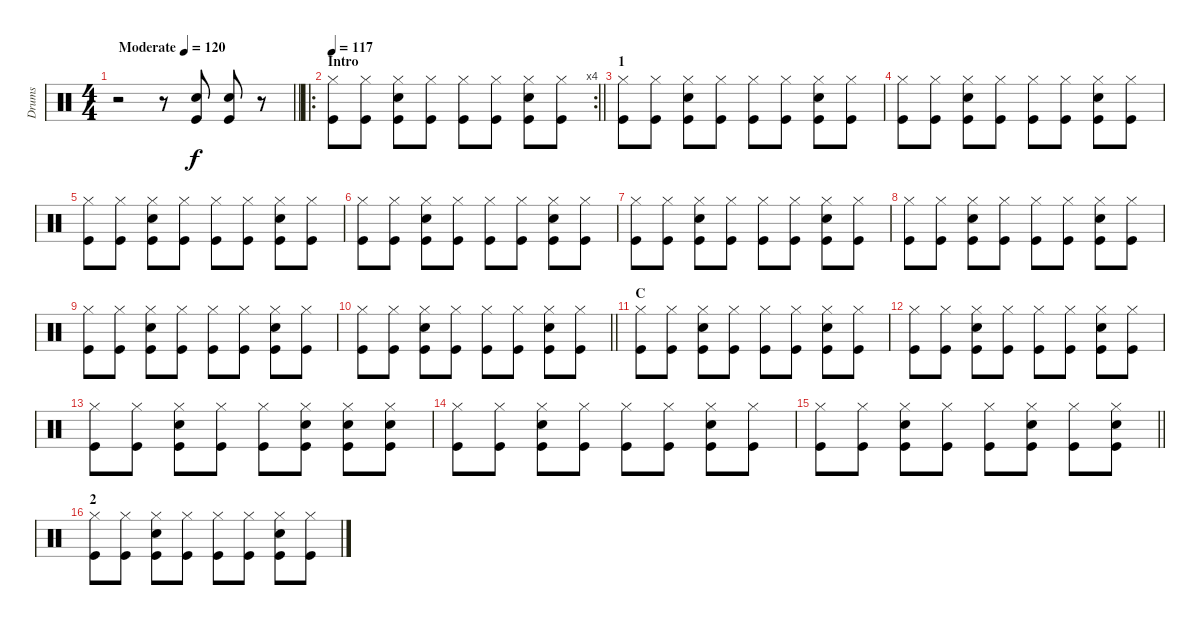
\track ("Drums" "Drums") {instrument percussion}
\staff {score}
\articulation defaults
\ts (4 4)
\tempo (120 "Moderate")
\clef neutral
\barLineRight lightlight
\ks c
r.2{dy f} r.8 ("Electric Snare (hit)" "Kick (hit)").8 ("Electric Snare (hit)" "Kick (hit)").8 r.8 |
\ro
\rc 4
\section ("" "Intro")
\tempo 117
\barLineRight lightlight
("Hi-Hat (closed)" "Kick (hit)").8 ("Hi-Hat (closed)" "Kick (hit)").8 ("Hi-Hat (closed)" "Electric Snare (hit)" "Kick (hit)").8 ("Hi-Hat (closed)" "Kick (hit)").8 ("Hi-Hat (closed)" "Kick (hit)").8 ("Hi-Hat (closed)" "Kick (hit)").8 ("Hi-Hat (closed)" "Electric Snare (hit)" "Kick (hit)").8 ("Hi-Hat (closed)" "Kick (hit)").8 |
\section ("" "1")
("Hi-Hat (closed)" "Kick (hit)").8 ("Hi-Hat (closed)" "Kick (hit)").8 ("Hi-Hat (closed)" "Electric Snare (hit)" "Kick (hit)").8 ("Hi-Hat (closed)" "Kick (hit)").8 ("Hi-Hat (closed)" "Kick (hit)").8 ("Hi-Hat (closed)" "Kick (hit)").8 ("Hi-Hat (closed)" "Electric Snare (hit)" "Kick (hit)").8 ("Hi-Hat (closed)" "Kick (hit)").8 |
("Hi-Hat (closed)" "Kick (hit)").8 ("Hi-Hat (closed)" "Kick (hit)").8 ("Hi-Hat (closed)" "Electric Snare (hit)" "Kick (hit)").8 ("Hi-Hat (closed)" "Kick (hit)").8 ("Hi-Hat (closed)" "Kick (hit)").8 ("Hi-Hat (closed)" "Kick (hit)").8 ("Hi-Hat (closed)" "Electric Snare (hit)" "Kick (hit)").8 ("Hi-Hat (closed)" "Kick (hit)").8 |
("Hi-Hat (closed)" "Kick (hit)").8 ("Hi-Hat (closed)" "Kick (hit)").8 ("Hi-Hat (closed)" "Electric Snare (hit)" "Kick (hit)").8 ("Hi-Hat (closed)" "Kick (hit)").8 ("Hi-Hat (closed)" "Kick (hit)").8 ("Hi-Hat (closed)" "Kick (hit)").8 ("Hi-Hat (closed)" "Electric Snare (hit)" "Kick (hit)").8 ("Hi-Hat (closed)" "Kick (hit)").8 |
("Hi-Hat (closed)" "Kick (hit)").8 ("Hi-Hat (closed)" "Kick (hit)").8 ("Hi-Hat (closed)" "Electric Snare (hit)" "Kick (hit)").8 ("Hi-Hat (closed)" "Kick (hit)").8 ("Hi-Hat (closed)" "Kick (hit)").8 ("Hi-Hat (closed)" "Kick (hit)").8 ("Hi-Hat (closed)" "Electric Snare (hit)" "Kick (hit)").8 ("Hi-Hat (closed)" "Kick (hit)").8 |
("Hi-Hat (closed)" "Kick (hit)").8 ("Hi-Hat (closed)" "Kick (hit)").8 ("Hi-Hat (closed)" "Electric Snare (hit)" "Kick (hit)").8 ("Hi-Hat (closed)" "Kick (hit)").8 ("Hi-Hat (closed)" "Kick (hit)").8 ("Hi-Hat (closed)" "Kick (hit)").8 ("Hi-Hat (closed)" "Electric Snare (hit)" "Kick (hit)").8 ("Hi-Hat (closed)" "Kick (hit)").8 |
("Hi-Hat (closed)" "Kick (hit)").8 ("Hi-Hat (closed)" "Kick (hit)").8 ("Hi-Hat (closed)" "Electric Snare (hit)" "Kick (hit)").8 ("Hi-Hat (closed)" "Kick (hit)").8 ("Hi-Hat (closed)" "Kick (hit)").8 ("Hi-Hat (closed)" "Kick (hit)").8 ("Hi-Hat (closed)" "Electric Snare (hit)" "Kick (hit)").8 ("Hi-Hat (closed)" "Kick (hit)").8 |
("Hi-Hat (closed)" "Kick (hit)").8 ("Hi-Hat (closed)" "Kick (hit)").8 ("Hi-Hat (closed)" "Electric Snare (hit)" "Kick (hit)").8 ("Hi-Hat (closed)" "Kick (hit)").8 ("Hi-Hat (closed)" "Kick (hit)").8 ("Hi-Hat (closed)" "Kick (hit)").8 ("Hi-Hat (closed)" "Electric Snare (hit)" "Kick (hit)").8 ("Hi-Hat (closed)" "Kick (hit)").8 |
\barLineRight lightlight
("Hi-Hat (closed)" "Kick (hit)").8 ("Hi-Hat (closed)" "Kick (hit)").8 ("Hi-Hat (closed)" "Electric Snare (hit)" "Kick (hit)").8 ("Hi-Hat (closed)" "Kick (hit)").8 ("Hi-Hat (closed)" "Kick (hit)").8 ("Hi-Hat (closed)" "Kick (hit)").8 ("Hi-Hat (closed)" "Electric Snare (hit)" "Kick (hit)").8 ("Hi-Hat (closed)" "Kick (hit)").8 |
\section ("" "C")
("Hi-Hat (closed)" "Kick (hit)").8 ("Hi-Hat (closed)" "Kick (hit)").8 ("Hi-Hat (closed)" "Electric Snare (hit)" "Kick (hit)").8 ("Hi-Hat (closed)" "Kick (hit)").8 ("Hi-Hat (closed)" "Kick (hit)").8 ("Hi-Hat (closed)" "Kick (hit)").8 ("Hi-Hat (closed)" "Electric Snare (hit)" "Kick (hit)").8 ("Hi-Hat (closed)" "Kick (hit)").8 |
("Hi-Hat (closed)" "Kick (hit)").8 ("Hi-Hat (closed)" "Kick (hit)").8 ("Hi-Hat (closed)" "Electric Snare (hit)" "Kick (hit)").8 ("Hi-Hat (closed)" "Kick (hit)").8 ("Hi-Hat (closed)" "Kick (hit)").8 ("Hi-Hat (closed)" "Kick (hit)").8 ("Hi-Hat (closed)" "Electric Snare (hit)" "Kick (hit)").8 ("Hi-Hat (closed)" "Kick (hit)").8 |
("Hi-Hat (closed)" "Kick (hit)").8 ("Hi-Hat (closed)" "Kick (hit)").8 ("Hi-Hat (closed)" "Electric Snare (hit)" "Kick (hit)").8 ("Hi-Hat (closed)" "Kick (hit)").8 ("Hi-Hat (closed)" "Kick (hit)").8 ("Hi-Hat (closed)" "Electric Snare (hit)" "Kick (hit)").8 ("Hi-Hat (closed)" "Electric Snare (hit)" "Kick (hit)").8 ("Hi-Hat (closed)" "Electric Snare (hit)" "Kick (hit)").8 |
("Hi-Hat (closed)" "Kick (hit)").8 ("Hi-Hat (closed)" "Kick (hit)").8 ("Hi-Hat (closed)" "Electric Snare (hit)" "Kick (hit)").8 ("Hi-Hat (closed)" "Kick (hit)").8 ("Hi-Hat (closed)" "Kick (hit)").8 ("Hi-Hat (closed)" "Kick (hit)").8 ("Hi-Hat (closed)" "Electric Snare (hit)" "Kick (hit)").8 ("Hi-Hat (closed)" "Kick (hit)").8 |
\barLineRight lightlight
("Hi-Hat (closed)" "Kick (hit)").8 ("Hi-Hat (closed)" "Kick (hit)").8 ("Hi-Hat (closed)" "Electric Snare (hit)" "Kick (hit)").8 ("Hi-Hat (closed)" "Kick (hit)").8 ("Hi-Hat (closed)" "Kick (hit)").8 ("Hi-Hat (closed)" "Electric Snare (hit)" "Kick (hit)").8 ("Hi-Hat (closed)" "Kick (hit)").8 ("Hi-Hat (closed)" "Electric Snare (hit)" "Kick (hit)").8 |
\section ("" "2")
("Hi-Hat (closed)" "Kick (hit)").8 ("Hi-Hat (closed)" "Kick (hit)").8 ("Hi-Hat (closed)" "Electric Snare (hit)" "Kick (hit)").8 ("Hi-Hat (closed)" "Kick (hit)").8 ("Hi-Hat (closed)" "Kick (hit)").8 ("Hi-Hat (closed)" "Kick (hit)").8 ("Hi-Hat (closed)" "Electric Snare (hit)" "Kick (hit)").8 ("Hi-Hat (closed)" "Kick (hit)").8
